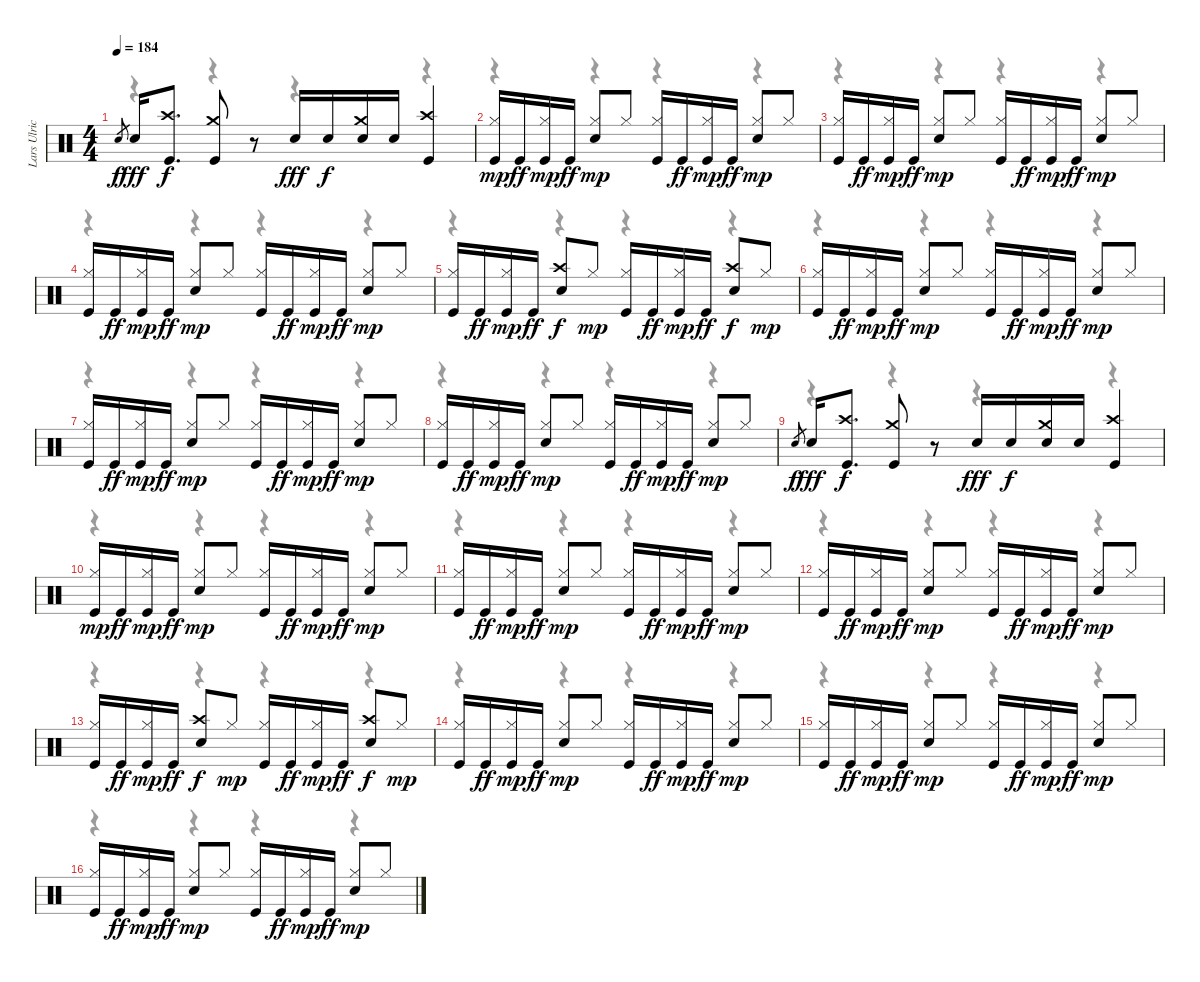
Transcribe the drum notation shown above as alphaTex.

\track ("Lars Ulrich" "Lars Ulric") {instrument percussion}
\staff {score}
\articulation defaults
\voice
\ts (4 4)
\tempo 184
\clef neutral
\ks c "Snare (hit)".8{gr dy f} "Snare (hit) 2".16{dy fff}
("Crash high (hit)" "Kick (hit)").8{d dy f} ("Crash medium (hit)" "Kick (hit)").8 r.8 "Snare (hit) 2".16{dy fff} "Snare (hit) 2".16{dy f} ("Crash medium (hit)" "Snare (hit) 2").16 "Snare (hit) 2".16 ("Crash high (hit)" "Kick (hit)").4 |
("Hi-Hat (closed)" "Kick (hit)").16{dy mp} "Kick (hit)".16{dy ff} ("Hi-Hat (closed)" "Kick (hit)").16{dy mp} "Kick (hit)".16{dy ff} ("Hi-Hat (closed)" "Snare (hit) 2").8{dy mp} "Hi-Hat (closed)".8 ("Hi-Hat (closed)" "Kick (hit)").16 "Kick (hit)".16{dy ff} ("Hi-Hat (closed)" "Kick (hit)").16{dy mp} "Kick (hit)".16{dy ff} ("Hi-Hat (closed)" "Snare (hit) 2").8{dy mp} "Hi-Hat (closed)".8 |
("Hi-Hat (closed)" "Kick (hit)").16 "Kick (hit)".16{dy ff} ("Hi-Hat (closed)" "Kick (hit)").16{dy mp} "Kick (hit)".16{dy ff} ("Hi-Hat (closed)" "Snare (hit) 2").8{dy mp} "Hi-Hat (closed)".8 ("Hi-Hat (closed)" "Kick (hit)").16 "Kick (hit)".16{dy ff} ("Hi-Hat (closed)" "Kick (hit)").16{dy mp} "Kick (hit)".16{dy ff} ("Hi-Hat (closed)" "Snare (hit) 2").8{dy mp} "Hi-Hat (closed)".8 |
("Hi-Hat (closed)" "Kick (hit)").16 "Kick (hit)".16{dy ff} ("Hi-Hat (closed)" "Kick (hit)").16{dy mp} "Kick (hit)".16{dy ff} ("Hi-Hat (closed)" "Snare (hit) 2").8{dy mp} "Hi-Hat (closed)".8 ("Hi-Hat (closed)" "Kick (hit)").16 "Kick (hit)".16{dy ff} ("Hi-Hat (closed)" "Kick (hit)").16{dy mp} "Kick (hit)".16{dy ff} ("Hi-Hat (closed)" "Snare (hit) 2").8{dy mp} "Hi-Hat (closed)".8 |
("Hi-Hat (closed)" "Kick (hit)").16 "Kick (hit)".16{dy ff} ("Hi-Hat (closed)" "Kick (hit)").16{dy mp} "Kick (hit)".16{dy ff} ("Crash high (hit)" "Snare (hit) 2").8{dy f} "Hi-Hat (closed)".8{dy mp} ("Hi-Hat (closed)" "Kick (hit)").16 "Kick (hit)".16{dy ff} ("Hi-Hat (closed)" "Kick (hit)").16{dy mp} "Kick (hit)".16{dy ff} ("Crash high (hit)" "Snare (hit) 2").8{dy f} "Hi-Hat (closed)".8{dy mp} |
("Hi-Hat (closed)" "Kick (hit)").16 "Kick (hit)".16{dy ff} ("Hi-Hat (closed)" "Kick (hit)").16{dy mp} "Kick (hit)".16{dy ff} ("Hi-Hat (closed)" "Snare (hit) 2").8{dy mp} "Hi-Hat (closed)".8 ("Hi-Hat (closed)" "Kick (hit)").16 "Kick (hit)".16{dy ff} ("Hi-Hat (closed)" "Kick (hit)").16{dy mp} "Kick (hit)".16{dy ff} ("Hi-Hat (closed)" "Snare (hit) 2").8{dy mp} "Hi-Hat (closed)".8 |
("Hi-Hat (closed)" "Kick (hit)").16 "Kick (hit)".16{dy ff} ("Hi-Hat (closed)" "Kick (hit)").16{dy mp} "Kick (hit)".16{dy ff} ("Hi-Hat (closed)" "Snare (hit) 2").8{dy mp} "Hi-Hat (closed)".8 ("Hi-Hat (closed)" "Kick (hit)").16 "Kick (hit)".16{dy ff} ("Hi-Hat (closed)" "Kick (hit)").16{dy mp} "Kick (hit)".16{dy ff} ("Hi-Hat (closed)" "Snare (hit) 2").8{dy mp} "Hi-Hat (closed)".8 |
("Hi-Hat (closed)" "Kick (hit)").16 "Kick (hit)".16{dy ff} ("Hi-Hat (closed)" "Kick (hit)").16{dy mp} "Kick (hit)".16{dy ff} ("Hi-Hat (closed)" "Snare (hit) 2").8{dy mp} "Hi-Hat (closed)".8 ("Hi-Hat (closed)" "Kick (hit)").16 "Kick (hit)".16{dy ff} ("Hi-Hat (closed)" "Kick (hit)").16{dy mp} "Kick (hit)".16{dy ff} ("Hi-Hat (closed)" "Snare (hit) 2").8{dy mp} "Hi-Hat (closed)".8 |
"Snare (hit)".8{gr dy f} "Snare (hit) 2".16{dy fff} ("Crash high (hit)" "Kick (hit)").8{d dy f} ("Crash medium (hit)" "Kick (hit)").8 r.8 "Snare (hit) 2".16{dy fff} "Snare (hit) 2".16{dy f} ("Crash medium (hit)" "Snare (hit) 2").16 "Snare (hit) 2".16 ("Crash high (hit)" "Kick (hit)").4 |
("Hi-Hat (closed)" "Kick (hit)").16{dy mp} "Kick (hit)".16{dy ff} ("Hi-Hat (closed)" "Kick (hit)").16{dy mp} "Kick (hit)".16{dy ff} ("Hi-Hat (closed)" "Snare (hit) 2").8{dy mp} "Hi-Hat (closed)".8 ("Hi-Hat (closed)" "Kick (hit)").16 "Kick (hit)".16{dy ff} ("Hi-Hat (closed)" "Kick (hit)").16{dy mp} "Kick (hit)".16{dy ff} ("Hi-Hat (closed)" "Snare (hit) 2").8{dy mp} "Hi-Hat (closed)".8 |
("Hi-Hat (closed)" "Kick (hit)").16 "Kick (hit)".16{dy ff} ("Hi-Hat (closed)" "Kick (hit)").16{dy mp} "Kick (hit)".16{dy ff} ("Hi-Hat (closed)" "Snare (hit) 2").8{dy mp} "Hi-Hat (closed)".8 ("Hi-Hat (closed)" "Kick (hit)").16 "Kick (hit)".16{dy ff} ("Hi-Hat (closed)" "Kick (hit)").16{dy mp} "Kick (hit)".16{dy ff} ("Hi-Hat (closed)" "Snare (hit) 2").8{dy mp} "Hi-Hat (closed)".8 |
("Hi-Hat (closed)" "Kick (hit)").16 "Kick (hit)".16{dy ff} ("Hi-Hat (closed)" "Kick (hit)").16{dy mp} "Kick (hit)".16{dy ff} ("Hi-Hat (closed)" "Snare (hit) 2").8{dy mp} "Hi-Hat (closed)".8 ("Hi-Hat (closed)" "Kick (hit)").16 "Kick (hit)".16{dy ff} ("Hi-Hat (closed)" "Kick (hit)").16{dy mp} "Kick (hit)".16{dy ff} ("Hi-Hat (closed)" "Snare (hit) 2").8{dy mp} "Hi-Hat (closed)".8 |
("Hi-Hat (closed)" "Kick (hit)").16 "Kick (hit)".16{dy ff} ("Hi-Hat (closed)" "Kick (hit)").16{dy mp} "Kick (hit)".16{dy ff} ("Crash high (hit)" "Snare (hit) 2").8{dy f} "Hi-Hat (closed)".8{dy mp} ("Hi-Hat (closed)" "Kick (hit)").16 "Kick (hit)".16{dy ff} ("Hi-Hat (closed)" "Kick (hit)").16{dy mp} "Kick (hit)".16{dy ff} ("Crash high (hit)" "Snare (hit) 2").8{dy f} "Hi-Hat (closed)".8{dy mp} |
("Hi-Hat (closed)" "Kick (hit)").16 "Kick (hit)".16{dy ff} ("Hi-Hat (closed)" "Kick (hit)").16{dy mp} "Kick (hit)".16{dy ff} ("Hi-Hat (closed)" "Snare (hit) 2").8{dy mp} "Hi-Hat (closed)".8 ("Hi-Hat (closed)" "Kick (hit)").16 "Kick (hit)".16{dy ff} ("Hi-Hat (closed)" "Kick (hit)").16{dy mp} "Kick (hit)".16{dy ff} ("Hi-Hat (closed)" "Snare (hit) 2").8{dy mp} "Hi-Hat (closed)".8 |
("Hi-Hat (closed)" "Kick (hit)").16 "Kick (hit)".16{dy ff} ("Hi-Hat (closed)" "Kick (hit)").16{dy mp} "Kick (hit)".16{dy ff} ("Hi-Hat (closed)" "Snare (hit) 2").8{dy mp} "Hi-Hat (closed)".8 ("Hi-Hat (closed)" "Kick (hit)").16 "Kick (hit)".16{dy ff} ("Hi-Hat (closed)" "Kick (hit)").16{dy mp} "Kick (hit)".16{dy ff} ("Hi-Hat (closed)" "Snare (hit) 2").8{dy mp} "Hi-Hat (closed)".8 |
("Hi-Hat (closed)" "Kick (hit)").16 "Kick (hit)".16{dy ff} ("Hi-Hat (closed)" "Kick (hit)").16{dy mp} "Kick (hit)".16{dy ff} ("Hi-Hat (closed)" "Snare (hit) 2").8{dy mp} "Hi-Hat (closed)".8 ("Hi-Hat (closed)" "Kick (hit)").16 "Kick (hit)".16{dy ff} ("Hi-Hat (closed)" "Kick (hit)").16{dy mp} "Kick (hit)".16{dy ff} ("Hi-Hat (closed)" "Snare (hit) 2").8{dy mp} "Hi-Hat (closed)".8
\voice
\clef neutral
\ottava regular
\simile none
\ks c
r.4{dy f} r.4 r.4 r.4 |
r.4 r.4 r.4 r.4 |
r.4 r.4 r.4 r.4 |
r.4 r.4 r.4 r.4 |
r.4 r.4 r.4 r.4 |
r.4 r.4 r.4 r.4 |
r.4 r.4 r.4 r.4 |
r.4 r.4 r.4 r.4 |
r.4 r.4 r.4 r.4 |
r.4 r.4 r.4 r.4 |
r.4 r.4 r.4 r.4 |
r.4 r.4 r.4 r.4 |
r.4 r.4 r.4 r.4 |
r.4 r.4 r.4 r.4 |
r.4 r.4 r.4 r.4 |
r.4 r.4 r.4 r.4
